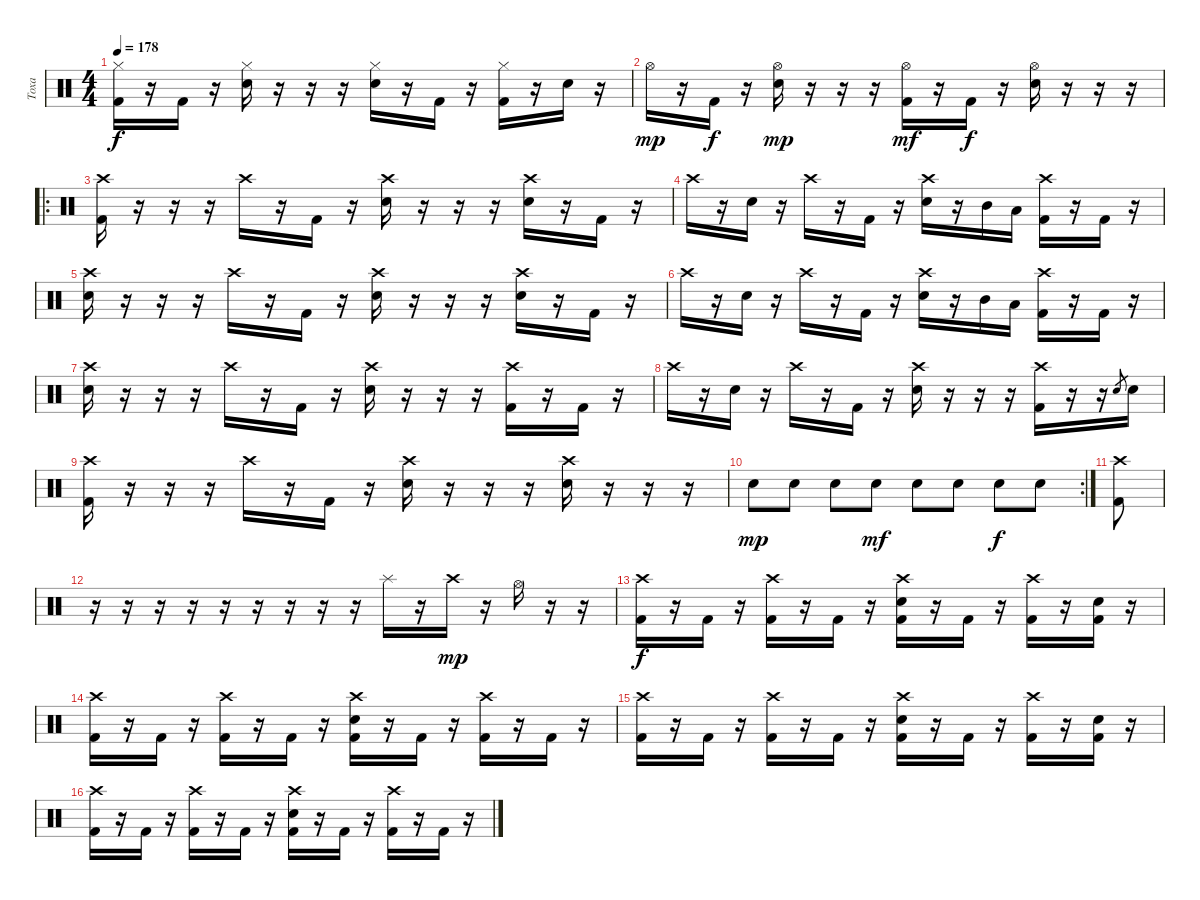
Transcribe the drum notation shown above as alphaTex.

\track ("Тоха" "Тоха") {instrument percussion}
\staff {score}
\articulation defaults
\ts (4 4)
\tempo 178
\clef neutral
\ks c
("Hi-Hat (closed)" "Kick (hit) 2").16{dy f} r.16 "Kick (hit) 2".16 r.16 ("Hi-Hat (closed)" "Electric Snare (hit)").16 r.16 r.16 r.16 ("Hi-Hat (closed)" "Electric Snare (hit)").16 r.16 "Kick (hit) 2".16 r.16 ("Hi-Hat (closed)" "Kick (hit) 2").16 r.16 "Electric Snare (hit)".16 r.16 |
"Hi-Hat (open)".16{dy mp} r.16 "Kick (hit) 2".16{dy f} r.16 ("Hi-Hat (open)" "Electric Snare (hit)").16{dy mp} r.16 r.16 r.16 ("Hi-Hat (open)" "Kick (hit) 2").16{dy mf} r.16 "Kick (hit) 2".16{dy f} r.16 ("Hi-Hat (open)" "Electric Snare (hit)").16 r.16 r.16 r.16 |
\ro
("Crash high (hit)" "Kick (hit) 2").16 r.16 r.16 r.16 "Crash high (hit)".16 r.16 "Kick (hit) 2".16 r.16 ("Crash high (hit)" "Electric Snare (hit)").16 r.16 r.16 r.16 ("Crash high (hit)" "Electric Snare (hit)").16 r.16 "Kick (hit) 2".16 r.16 |
"Crash high (hit)".16 r.16 "Electric Snare (hit)".16 r.16 "Crash high (hit)".16 r.16 "Kick (hit) 2".16 r.16 ("Crash high (hit)" "Electric Snare (hit)").16 r.16 "Mid Tom (hit)".16 "Low Tom (hit)".16 ("Crash high (hit)" "Kick (hit) 2").16 r.16 "Kick (hit) 2".16 r.16 |
("Crash high (hit)" "Electric Snare (hit)").16 r.16 r.16 r.16 "Crash high (hit)".16 r.16 "Kick (hit) 2".16 r.16 ("Crash high (hit)" "Electric Snare (hit)").16 r.16 r.16 r.16 ("Crash high (hit)" "Electric Snare (hit)").16 r.16 "Kick (hit) 2".16 r.16 |
"Crash high (hit)".16 r.16 "Electric Snare (hit)".16 r.16 "Crash high (hit)".16 r.16 "Kick (hit) 2".16 r.16 ("Crash high (hit)" "Electric Snare (hit)").16 r.16 "Mid Tom (hit)".16 "Low Tom (hit)".16 ("Crash high (hit)" "Kick (hit) 2").16 r.16 "Kick (hit) 2".16 r.16 |
("Crash high (hit)" "Electric Snare (hit)").16 r.16 r.16 r.16 "Crash high (hit)".16 r.16 "Kick (hit) 2".16 r.16 ("Crash high (hit)" "Electric Snare (hit)").16 r.16 r.16 r.16 ("Crash high (hit)" "Kick (hit) 2").16 r.16 "Kick (hit) 2".16 r.16 |
"Crash high (hit)".16 r.16 "Electric Snare (hit)".16 r.16 "Crash high (hit)".16 r.16 "Kick (hit) 2".16 r.16 ("Crash high (hit)" "Electric Snare (hit)").16 r.16 r.16 r.16 ("Crash high (hit)" "Kick (hit) 2").16 r.16 r.16 "Electric Snare (hit)".8{gr} "Electric Snare (hit)".16 |
("Crash high (hit)" "Kick (hit) 2").16 r.16 r.16 r.16 "Crash high (hit)".16 r.16 "Kick (hit) 2".16 r.16 ("Crash high (hit)" "Electric Snare (hit)").16 r.16 r.16 r.16 ("Crash high (hit)" "Electric Snare (hit)").16 r.16 r.16 r.16 |
\rc 2 "Electric Snare (hit)".8{dy mp} "Electric Snare (hit)".8 "Electric Snare (hit)".8 "Electric Snare (hit)".8{dy mf} "Electric Snare (hit)".8 "Electric Snare (hit)".8 "Electric Snare (hit)".8{dy f} "Electric Snare (hit)".8
|
("Crash high (hit)" "Kick (hit) 2").8 |
r.16 r.16 r.16 r.16 r.16 r.16 r.16 r.16 r.16 "Splash (hit)".16 r.16 "Crash high (hit)".16{dy mp} r.16 "Hi-Hat (open)".16 r.16 r.16 |
("Crash high (hit)" "Kick (hit) 2").16{dy f} r.16 "Kick (hit) 2".16 r.16 ("Crash high (hit)" "Kick (hit) 2").16 r.16 "Kick (hit) 2".16 r.16 ("Crash high (hit)" "Electric Snare (hit)" "Kick (hit) 2").16 r.16 "Kick (hit) 2".16 r.16 ("Crash high (hit)" "Kick (hit) 2").16 r.16 ("Electric Snare (hit)" "Kick (hit) 2").16 r.16 |
("Crash high (hit)" "Kick (hit) 2").16 r.16 "Kick (hit) 2".16 r.16 ("Crash high (hit)" "Kick (hit) 2").16 r.16 "Kick (hit) 2".16 r.16 ("Crash high (hit)" "Electric Snare (hit)" "Kick (hit) 2").16 r.16 "Kick (hit) 2".16 r.16 ("Crash high (hit)" "Kick (hit) 2").16 r.16 "Kick (hit) 2".16 r.16 |
("Crash high (hit)" "Kick (hit) 2").16 r.16 "Kick (hit) 2".16 r.16 ("Crash high (hit)" "Kick (hit) 2").16 r.16 "Kick (hit) 2".16 r.16 ("Crash high (hit)" "Electric Snare (hit)" "Kick (hit) 2").16 r.16 "Kick (hit) 2".16 r.16 ("Crash high (hit)" "Kick (hit) 2").16 r.16 ("Electric Snare (hit)" "Kick (hit) 2").16 r.16 |
("Crash high (hit)" "Kick (hit) 2").16 r.16 "Kick (hit) 2".16 r.16 ("Crash high (hit)" "Kick (hit) 2").16 r.16 "Kick (hit) 2".16 r.16 ("Crash high (hit)" "Electric Snare (hit)" "Kick (hit) 2").16 r.16 "Kick (hit) 2".16 r.16 ("Crash high (hit)" "Kick (hit) 2").16 r.16 "Kick (hit) 2".16 r.16
